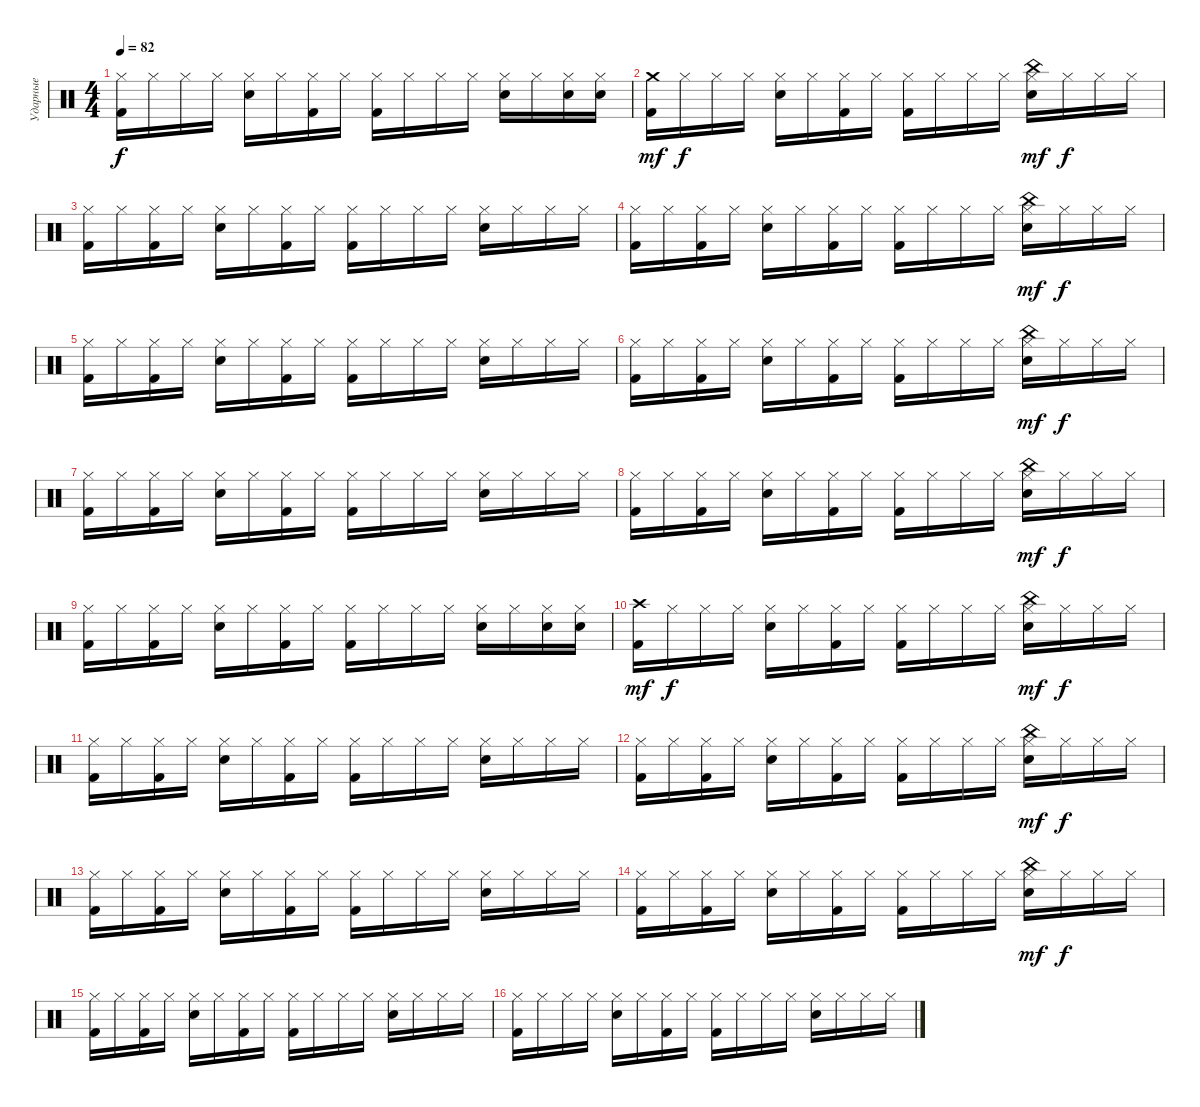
\track ("Ударные" "Ударные") {instrument percussion}
\staff {score}
\articulation defaults
\ts (4 4)
\tempo 82
\clef neutral
\ks c
("Hi-Hat (closed)" "Kick (hit) 2").16{dy f} "Hi-Hat (closed)".16 "Hi-Hat (closed)".16 "Hi-Hat (closed)".16 ("Hi-Hat (closed)" "Electric Snare (hit)").16 "Hi-Hat (closed)".16 ("Hi-Hat (closed)" "Kick (hit) 2").16 "Hi-Hat (closed)".16 ("Hi-Hat (closed)" "Kick (hit) 2").16 "Hi-Hat (closed)".16 "Hi-Hat (closed)".16 "Hi-Hat (closed)".16 ("Hi-Hat (closed)" "Electric Snare (hit)").16 "Hi-Hat (closed)".16 ("Hi-Hat (closed)" "Electric Snare (hit)").16 ("Hi-Hat (closed)" "Electric Snare (hit)").16 |
("Crash medium (hit)" "Kick (hit) 2").16{dy mf} "Hi-Hat (closed)".16{dy f} "Hi-Hat (closed)".16 "Hi-Hat (closed)".16 ("Hi-Hat (closed)" "Electric Snare (hit)").16 "Hi-Hat (closed)".16 ("Hi-Hat (closed)" "Kick (hit) 2").16 "Hi-Hat (closed)".16 ("Hi-Hat (closed)" "Kick (hit) 2").16 "Hi-Hat (closed)".16 "Hi-Hat (closed)".16 "Hi-Hat (closed)".16 ("Hi-Hat (closed)" "Electric Snare (hit)" "China (hit)").16{dy mf} "Hi-Hat (closed)".16{dy f} "Hi-Hat (closed)".16 "Hi-Hat (closed)".16 |
("Hi-Hat (closed)" "Kick (hit) 2").16 "Hi-Hat (closed)".16 ("Hi-Hat (closed)" "Kick (hit) 2").16 "Hi-Hat (closed)".16 ("Hi-Hat (closed)" "Electric Snare (hit)").16 "Hi-Hat (closed)".16 ("Hi-Hat (closed)" "Kick (hit) 2").16 "Hi-Hat (closed)".16 ("Hi-Hat (closed)" "Kick (hit) 2").16 "Hi-Hat (closed)".16 "Hi-Hat (closed)".16 "Hi-Hat (closed)".16 ("Hi-Hat (closed)" "Electric Snare (hit)").16 "Hi-Hat (closed)".16 "Hi-Hat (closed)".16 "Hi-Hat (closed)".16 |
("Hi-Hat (closed)" "Kick (hit) 2").16 "Hi-Hat (closed)".16 ("Hi-Hat (closed)" "Kick (hit) 2").16 "Hi-Hat (closed)".16 ("Hi-Hat (closed)" "Electric Snare (hit)").16 "Hi-Hat (closed)".16 ("Hi-Hat (closed)" "Kick (hit) 2").16 "Hi-Hat (closed)".16 ("Hi-Hat (closed)" "Kick (hit) 2").16 "Hi-Hat (closed)".16 "Hi-Hat (closed)".16 "Hi-Hat (closed)".16 ("Hi-Hat (closed)" "China (hit)" "Electric Snare (hit)").16{dy mf} "Hi-Hat (closed)".16{dy f} "Hi-Hat (closed)".16 "Hi-Hat (closed)".16 |
("Hi-Hat (closed)" "Kick (hit) 2").16 "Hi-Hat (closed)".16 ("Hi-Hat (closed)" "Kick (hit) 2").16 "Hi-Hat (closed)".16 ("Hi-Hat (closed)" "Electric Snare (hit)").16 "Hi-Hat (closed)".16 ("Hi-Hat (closed)" "Kick (hit) 2").16 "Hi-Hat (closed)".16 ("Hi-Hat (closed)" "Kick (hit) 2").16 "Hi-Hat (closed)".16 "Hi-Hat (closed)".16 "Hi-Hat (closed)".16 ("Hi-Hat (closed)" "Electric Snare (hit)").16 "Hi-Hat (closed)".16 "Hi-Hat (closed)".16 "Hi-Hat (closed)".16 |
("Hi-Hat (closed)" "Kick (hit) 2").16 "Hi-Hat (closed)".16 ("Hi-Hat (closed)" "Kick (hit) 2").16 "Hi-Hat (closed)".16 ("Hi-Hat (closed)" "Electric Snare (hit)").16 "Hi-Hat (closed)".16 ("Hi-Hat (closed)" "Kick (hit) 2").16 "Hi-Hat (closed)".16 ("Hi-Hat (closed)" "Kick (hit) 2").16 "Hi-Hat (closed)".16 "Hi-Hat (closed)".16 "Hi-Hat (closed)".16 ("Hi-Hat (closed)" "China (hit)" "Electric Snare (hit)").16{dy mf} "Hi-Hat (closed)".16{dy f} "Hi-Hat (closed)".16 "Hi-Hat (closed)".16 |
("Hi-Hat (closed)" "Kick (hit) 2").16 "Hi-Hat (closed)".16 ("Hi-Hat (closed)" "Kick (hit) 2").16 "Hi-Hat (closed)".16 ("Hi-Hat (closed)" "Electric Snare (hit)").16 "Hi-Hat (closed)".16 ("Hi-Hat (closed)" "Kick (hit) 2").16 "Hi-Hat (closed)".16 ("Hi-Hat (closed)" "Kick (hit) 2").16 "Hi-Hat (closed)".16 "Hi-Hat (closed)".16 "Hi-Hat (closed)".16 ("Hi-Hat (closed)" "Electric Snare (hit)").16 "Hi-Hat (closed)".16 "Hi-Hat (closed)".16 "Hi-Hat (closed)".16 |
("Hi-Hat (closed)" "Kick (hit) 2").16 "Hi-Hat (closed)".16 ("Hi-Hat (closed)" "Kick (hit) 2").16 "Hi-Hat (closed)".16 ("Hi-Hat (closed)" "Electric Snare (hit)").16 "Hi-Hat (closed)".16 ("Hi-Hat (closed)" "Kick (hit) 2").16 "Hi-Hat (closed)".16 ("Hi-Hat (closed)" "Kick (hit) 2").16 "Hi-Hat (closed)".16 "Hi-Hat (closed)".16 "Hi-Hat (closed)".16 ("Hi-Hat (closed)" "China (hit)" "Electric Snare (hit)").16{dy mf} "Hi-Hat (closed)".16{dy f} "Hi-Hat (closed)".16 "Hi-Hat (closed)".16 |
("Hi-Hat (closed)" "Kick (hit) 2").16 "Hi-Hat (closed)".16 ("Hi-Hat (closed)" "Kick (hit) 2").16 "Hi-Hat (closed)".16 ("Hi-Hat (closed)" "Electric Snare (hit)").16 "Hi-Hat (closed)".16 ("Hi-Hat (closed)" "Kick (hit) 2").16 "Hi-Hat (closed)".16 ("Hi-Hat (closed)" "Kick (hit) 2").16 "Hi-Hat (closed)".16 "Hi-Hat (closed)".16 "Hi-Hat (closed)".16 ("Hi-Hat (closed)" "Electric Snare (hit)").16 "Hi-Hat (closed)".16 ("Hi-Hat (closed)" "Electric Snare (hit)").16 ("Hi-Hat (closed)" "Electric Snare (hit)").16 |
("Crash high (hit)" "Kick (hit) 2").16{dy mf} "Hi-Hat (closed)".16{dy f} "Hi-Hat (closed)".16 "Hi-Hat (closed)".16 ("Hi-Hat (closed)" "Electric Snare (hit)").16 "Hi-Hat (closed)".16 ("Hi-Hat (closed)" "Kick (hit) 2").16 "Hi-Hat (closed)".16 ("Hi-Hat (closed)" "Kick (hit) 2").16 "Hi-Hat (closed)".16 "Hi-Hat (closed)".16 "Hi-Hat (closed)".16 ("Hi-Hat (closed)" "China (hit)" "Electric Snare (hit)").16{dy mf} "Hi-Hat (closed)".16{dy f} "Hi-Hat (closed)".16 "Hi-Hat (closed)".16 |
("Hi-Hat (closed)" "Kick (hit) 2").16 "Hi-Hat (closed)".16 ("Hi-Hat (closed)" "Kick (hit) 2").16 "Hi-Hat (closed)".16 ("Hi-Hat (closed)" "Electric Snare (hit)").16 "Hi-Hat (closed)".16 ("Hi-Hat (closed)" "Kick (hit) 2").16 "Hi-Hat (closed)".16 ("Hi-Hat (closed)" "Kick (hit) 2").16 "Hi-Hat (closed)".16 "Hi-Hat (closed)".16 "Hi-Hat (closed)".16 ("Hi-Hat (closed)" "Electric Snare (hit)").16 "Hi-Hat (closed)".16 "Hi-Hat (closed)".16 "Hi-Hat (closed)".16 |
("Hi-Hat (closed)" "Kick (hit) 2").16 "Hi-Hat (closed)".16 ("Hi-Hat (closed)" "Kick (hit) 2").16 "Hi-Hat (closed)".16 ("Hi-Hat (closed)" "Electric Snare (hit)").16 "Hi-Hat (closed)".16 ("Hi-Hat (closed)" "Kick (hit) 2").16 "Hi-Hat (closed)".16 ("Hi-Hat (closed)" "Kick (hit) 2").16 "Hi-Hat (closed)".16 "Hi-Hat (closed)".16 "Hi-Hat (closed)".16 ("Hi-Hat (closed)" "China (hit)" "Electric Snare (hit)").16{dy mf} "Hi-Hat (closed)".16{dy f} "Hi-Hat (closed)".16 "Hi-Hat (closed)".16 |
("Hi-Hat (closed)" "Kick (hit) 2").16 "Hi-Hat (closed)".16 ("Hi-Hat (closed)" "Kick (hit) 2").16 "Hi-Hat (closed)".16 ("Hi-Hat (closed)" "Electric Snare (hit)").16 "Hi-Hat (closed)".16 ("Hi-Hat (closed)" "Kick (hit) 2").16 "Hi-Hat (closed)".16 ("Hi-Hat (closed)" "Kick (hit) 2").16 "Hi-Hat (closed)".16 "Hi-Hat (closed)".16 "Hi-Hat (closed)".16 ("Hi-Hat (closed)" "Electric Snare (hit)").16 "Hi-Hat (closed)".16 "Hi-Hat (closed)".16 "Hi-Hat (closed)".16 |
("Hi-Hat (closed)" "Kick (hit) 2").16 "Hi-Hat (closed)".16 ("Hi-Hat (closed)" "Kick (hit) 2").16 "Hi-Hat (closed)".16 ("Hi-Hat (closed)" "Electric Snare (hit)").16 "Hi-Hat (closed)".16 ("Hi-Hat (closed)" "Kick (hit) 2").16 "Hi-Hat (closed)".16 ("Hi-Hat (closed)" "Kick (hit) 2").16 "Hi-Hat (closed)".16 "Hi-Hat (closed)".16 "Hi-Hat (closed)".16 ("Hi-Hat (closed)" "China (hit)" "Electric Snare (hit)").16{dy mf} "Hi-Hat (closed)".16{dy f} "Hi-Hat (closed)".16 "Hi-Hat (closed)".16 |
("Hi-Hat (closed)" "Kick (hit) 2").16 "Hi-Hat (closed)".16 ("Hi-Hat (closed)" "Kick (hit) 2").16 "Hi-Hat (closed)".16 ("Hi-Hat (closed)" "Electric Snare (hit)").16 "Hi-Hat (closed)".16 ("Hi-Hat (closed)" "Kick (hit) 2").16 "Hi-Hat (closed)".16 ("Hi-Hat (closed)" "Kick (hit) 2").16 "Hi-Hat (closed)".16 "Hi-Hat (closed)".16 "Hi-Hat (closed)".16 ("Hi-Hat (closed)" "Electric Snare (hit)").16 "Hi-Hat (closed)".16 "Hi-Hat (closed)".16 "Hi-Hat (closed)".16 |
("Hi-Hat (closed)" "Kick (hit) 2").16 "Hi-Hat (closed)".16 "Hi-Hat (closed)".16 "Hi-Hat (closed)".16 ("Hi-Hat (closed)" "Electric Snare (hit)").16 "Hi-Hat (closed)".16 ("Hi-Hat (closed)" "Kick (hit) 2").16 "Hi-Hat (closed)".16 ("Hi-Hat (closed)" "Kick (hit) 2").16 "Hi-Hat (closed)".16 "Hi-Hat (closed)".16 "Hi-Hat (closed)".16 ("Hi-Hat (closed)" "Electric Snare (hit)").16 "Hi-Hat (closed)".16 "Hi-Hat (closed)".16 "Hi-Hat (closed)".16
